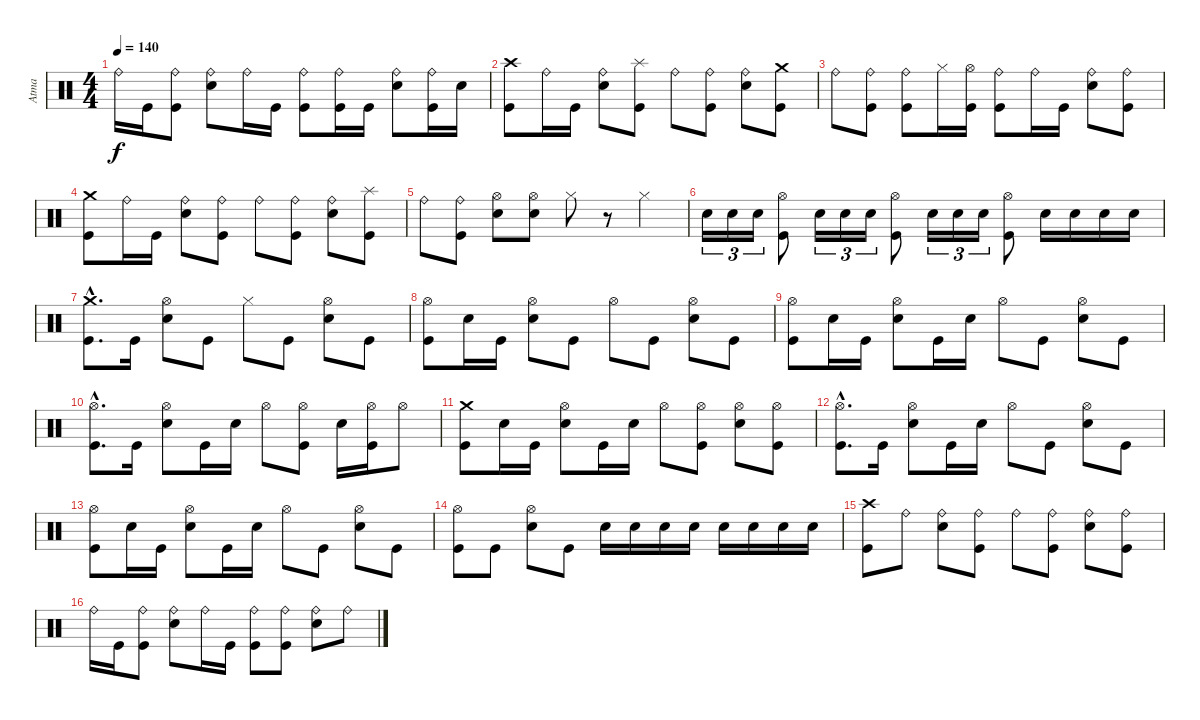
\track ("Atma" "Atma") {instrument percussion}
\staff {score}
\articulation defaults
\ts (4 4)
\tempo 140
\clef neutral
\ks c "Ride (bell)".16{dy f} "Kick (hit)".16
("Kick (hit)" "Ride (bell)").8 ("Snare (hit) 2" "Ride (bell)").8 "Ride (bell)".16 "Kick (hit)".16 ("Kick (hit)" "Ride (bell)").8 ("Kick (hit)" "Ride (bell)").16 "Kick (hit)".16 ("Snare (hit) 2" "Ride (bell)").8 ("Kick (hit)" "Ride (bell)").16 "Snare (hit) 2".16 |
("Kick (hit)" "Crash high (hit)").8 "Ride (bell)".16 "Kick (hit)".16 ("Snare (hit) 2" "Ride (bell)").8 ("Kick (hit)" "Splash (hit)").8 "Ride (bell)".8 ("Kick (hit)" "Ride (bell)").8 ("Snare (hit) 2" "Ride (bell)").8 ("Kick (hit)" "Crash medium (hit)").8 |
"Ride (bell)".8 ("Kick (hit)" "Ride (bell)").8 ("Kick (hit)" "Ride (bell)").8 "Hi-Hat (closed)".16 ("Kick (hit)" "Hi-Hat (open)").16 ("Kick (hit)" "Ride (bell)").8 "Ride (bell)".16 "Kick (hit)".16 ("Snare (hit) 2" "Ride (bell)").8 ("Kick (hit)" "Ride (bell)").8 |
("Kick (hit)" "Crash medium (hit)").8 "Ride (bell)".16 "Kick (hit)".16 ("Snare (hit) 2" "Ride (bell)").8 ("Kick (hit)" "Ride (bell)").8 "Ride (bell)".8 ("Kick (hit)" "Ride (bell)").8 ("Snare (hit) 2" "Ride (bell)").8 ("Kick (hit)" "Splash (hit)").8 |
"Ride (bell)".8 ("Kick (hit)" "Ride (bell)").8 ("Snare (hit) 2" "Hi-Hat (open)").8 ("Snare (hit) 2" "Hi-Hat (open)").8 "Hi-Hat (closed)".8 r.8 "Hi-Hat (closed)".4 |
"Snare (hit) 2".16{tu (3 2)} "Snare (hit) 2".16{tu (3 2)} "Snare (hit) 2".16{tu (3 2)} ("Kick (hit)" "Hi-Hat (open)").8 "Snare (hit) 2".16{tu (3 2)} "Snare (hit) 2".16{tu (3 2)} "Snare (hit) 2".16{tu (3 2)} ("Kick (hit)" "Hi-Hat (open)").8 "Snare (hit) 2".16{tu (3 2)} "Snare (hit) 2".16{tu (3 2)} "Snare (hit) 2".16{tu (3 2)} ("Kick (hit)" "Hi-Hat (open)").8 "Snare (hit) 2".16 "Snare (hit) 2".16 "Snare (hit) 2".16 "Snare (hit) 2".16 |
("Kick (hit)"{hac} "Crash medium (hit)"{hac}).8{d} "Kick (hit)".16 ("Snare (hit) 2" "Hi-Hat (open)").8 "Kick (hit)".8 "Hi-Hat (closed)".8 "Kick (hit)".8 ("Snare (hit) 2" "Hi-Hat (open)").8 "Kick (hit)".8 |
("Kick (hit)" "Hi-Hat (open)").8 "Snare (hit) 2".16 "Kick (hit)".16 ("Snare (hit) 2" "Hi-Hat (open)").8 "Kick (hit)".8 "Hi-Hat (open)".8 "Kick (hit)".8 ("Snare (hit) 2" "Hi-Hat (open)").8 "Kick (hit)".8 |
("Kick (hit)" "Hi-Hat (open)").8 "Snare (hit) 2".16 "Kick (hit)".16 ("Snare (hit) 2" "Hi-Hat (open)").8 "Kick (hit)".16 "Snare (hit) 2".16 "Hi-Hat (open)".8 "Kick (hit)".8 ("Snare (hit) 2" "Hi-Hat (open)").8 "Kick (hit)".8 |
("Kick (hit)"{hac} "Hi-Hat (open)"{hac}).8{d} "Kick (hit)".16 ("Snare (hit) 2" "Hi-Hat (open)").8 "Kick (hit)".16 "Snare (hit) 2".16 "Hi-Hat (open)".8 ("Kick (hit)" "Hi-Hat (open)").8 "Snare (hit) 2".16 ("Kick (hit)" "Hi-Hat (open)").16 "Hi-Hat (open)".8 |
("Kick (hit)" "Crash medium (hit)").8 "Snare (hit) 2".16 "Kick (hit)".16 ("Snare (hit) 2" "Hi-Hat (open)").8 "Kick (hit)".16 "Snare (hit) 2".16 "Hi-Hat (open)".8 ("Kick (hit)" "Hi-Hat (open)").8 ("Snare (hit) 2" "Hi-Hat (open)").8 ("Kick (hit)" "Hi-Hat (open)").8 |
("Kick (hit)"{hac} "Hi-Hat (open)"{hac}).8{d} "Kick (hit)".16 ("Snare (hit) 2" "Hi-Hat (open)").8 "Kick (hit)".16 "Snare (hit) 2".16 "Hi-Hat (open)".8 "Kick (hit)".8 ("Snare (hit) 2" "Hi-Hat (open)").8 "Kick (hit)".8 |
("Kick (hit)" "Hi-Hat (open)").8 "Snare (hit) 2".16 "Kick (hit)".16 ("Snare (hit) 2" "Hi-Hat (open)").8 "Kick (hit)".16 "Snare (hit) 2".16 "Hi-Hat (open)".8 "Kick (hit)".8 ("Snare (hit) 2" "Hi-Hat (open)").8 "Kick (hit)".8 |
("Kick (hit)" "Hi-Hat (open)").8 "Kick (hit)".8 ("Snare (hit) 2" "Hi-Hat (open)").8 "Kick (hit)".8 "Snare (hit) 2".16 "Snare (hit) 2".16 "Snare (hit) 2".16 "Snare (hit) 2".16 "Snare (hit) 2".16 "Snare (hit) 2".16 "Snare (hit) 2".16 "Snare (hit) 2".16 |
("Kick (hit)" "Crash high (hit)").8 "Ride (bell)".8 ("Snare (hit) 2" "Ride (bell)").8 ("Kick (hit)" "Ride (bell)").8 "Ride (bell)".8 ("Kick (hit)" "Ride (bell)").8 ("Snare (hit) 2" "Ride (bell)").8 ("Kick (hit)" "Ride (bell)").8 |
"Ride (bell)".16 "Kick (hit)".16 ("Kick (hit)" "Ride (bell)").8 ("Snare (hit) 2" "Ride (bell)").8 "Ride (bell)".16 "Kick (hit)".16 ("Kick (hit)" "Ride (bell)").8 ("Kick (hit)" "Ride (bell)").8 ("Snare (hit) 2" "Ride (bell)").8 "Ride (bell)".8
